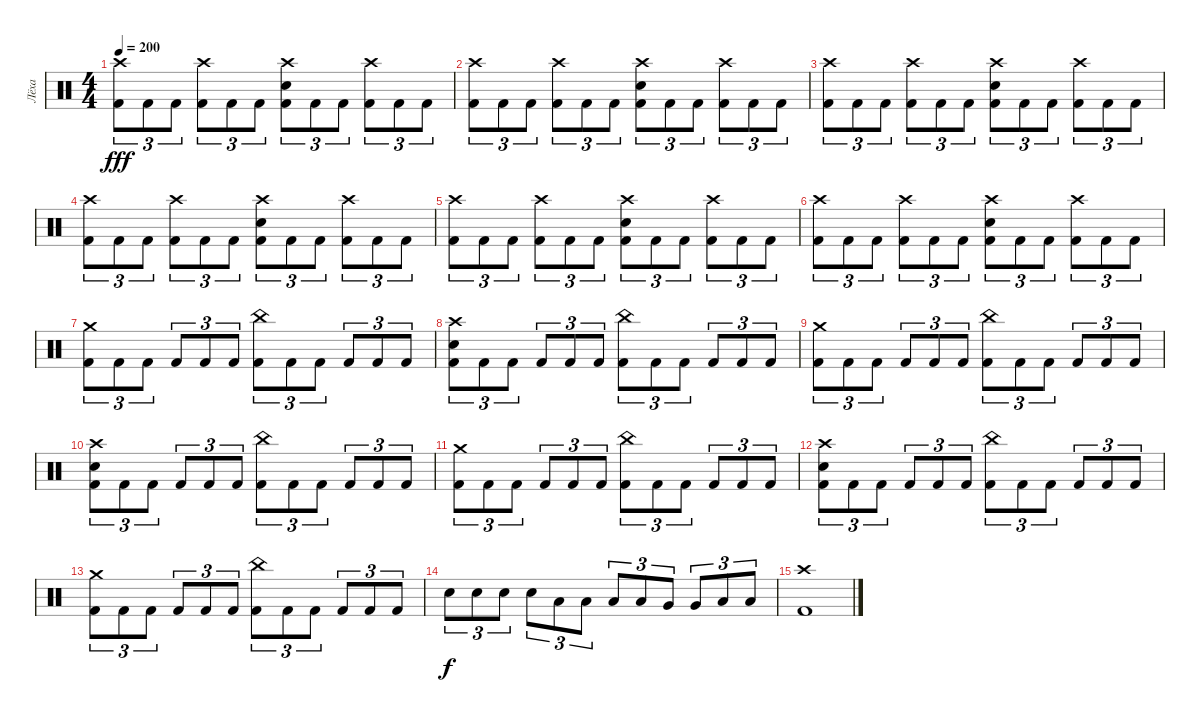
\track ("Лёха" "Лёха") {instrument percussion}
\staff {score}
\articulation defaults
\ts (4 4)
\tempo 200
\clef neutral
\ks c
("Crash high (hit)" "Kick (hit) 2").8{tu (3 2) dy fff} "Kick (hit) 2".8{tu (3 2)} "Kick (hit) 2".8{tu (3 2)} ("Crash high (hit)" "Kick (hit) 2").8{tu (3 2)} "Kick (hit) 2".8{tu (3 2)} "Kick (hit) 2".8{tu (3 2)} ("Crash high (hit)" "Electric Snare (hit)" "Kick (hit) 2").8{tu (3 2)} "Kick (hit) 2".8{tu (3 2)} "Kick (hit) 2".8{tu (3 2)} ("Crash high (hit)" "Kick (hit) 2").8{tu (3 2)} "Kick (hit) 2".8{tu (3 2)} "Kick (hit) 2".8{tu (3 2)} |
("Crash high (hit)" "Kick (hit) 2").8{tu (3 2)} "Kick (hit) 2".8{tu (3 2)} "Kick (hit) 2".8{tu (3 2)} ("Crash high (hit)" "Kick (hit) 2").8{tu (3 2)} "Kick (hit) 2".8{tu (3 2)} "Kick (hit) 2".8{tu (3 2)} ("Crash high (hit)" "Electric Snare (hit)" "Kick (hit) 2").8{tu (3 2)} "Kick (hit) 2".8{tu (3 2)} "Kick (hit) 2".8{tu (3 2)} ("Crash high (hit)" "Kick (hit) 2").8{tu (3 2)} "Kick (hit) 2".8{tu (3 2)} "Kick (hit) 2".8{tu (3 2)} |
("Crash high (hit)" "Kick (hit) 2").8{tu (3 2)} "Kick (hit) 2".8{tu (3 2)} "Kick (hit) 2".8{tu (3 2)} ("Crash high (hit)" "Kick (hit) 2").8{tu (3 2)} "Kick (hit) 2".8{tu (3 2)} "Kick (hit) 2".8{tu (3 2)} ("Crash high (hit)" "Electric Snare (hit)" "Kick (hit) 2").8{tu (3 2)} "Kick (hit) 2".8{tu (3 2)} "Kick (hit) 2".8{tu (3 2)} ("Crash high (hit)" "Kick (hit) 2").8{tu (3 2)} "Kick (hit) 2".8{tu (3 2)} "Kick (hit) 2".8{tu (3 2)} |
("Crash high (hit)" "Kick (hit) 2").8{tu (3 2)} "Kick (hit) 2".8{tu (3 2)} "Kick (hit) 2".8{tu (3 2)} ("Crash high (hit)" "Kick (hit) 2").8{tu (3 2)} "Kick (hit) 2".8{tu (3 2)} "Kick (hit) 2".8{tu (3 2)} ("Crash high (hit)" "Electric Snare (hit)" "Kick (hit) 2").8{tu (3 2)} "Kick (hit) 2".8{tu (3 2)} "Kick (hit) 2".8{tu (3 2)} ("Crash high (hit)" "Kick (hit) 2").8{tu (3 2)} "Kick (hit) 2".8{tu (3 2)} "Kick (hit) 2".8{tu (3 2)} |
("Crash high (hit)" "Kick (hit) 2").8{tu (3 2)} "Kick (hit) 2".8{tu (3 2)} "Kick (hit) 2".8{tu (3 2)} ("Crash high (hit)" "Kick (hit) 2").8{tu (3 2)} "Kick (hit) 2".8{tu (3 2)} "Kick (hit) 2".8{tu (3 2)} ("Crash high (hit)" "Electric Snare (hit)" "Kick (hit) 2").8{tu (3 2)} "Kick (hit) 2".8{tu (3 2)} "Kick (hit) 2".8{tu (3 2)} ("Crash high (hit)" "Kick (hit) 2").8{tu (3 2)} "Kick (hit) 2".8{tu (3 2)} "Kick (hit) 2".8{tu (3 2)} |
("Crash high (hit)" "Kick (hit) 2").8{tu (3 2)} "Kick (hit) 2".8{tu (3 2)} "Kick (hit) 2".8{tu (3 2)} ("Crash high (hit)" "Kick (hit) 2").8{tu (3 2)} "Kick (hit) 2".8{tu (3 2)} "Kick (hit) 2".8{tu (3 2)} ("Crash high (hit)" "Electric Snare (hit)" "Kick (hit) 2").8{tu (3 2)} "Kick (hit) 2".8{tu (3 2)} "Kick (hit) 2".8{tu (3 2)} ("Crash high (hit)" "Kick (hit) 2").8{tu (3 2)} "Kick (hit) 2".8{tu (3 2)} "Kick (hit) 2".8{tu (3 2)} |
("Crash medium (hit)" "Kick (hit) 2").8{tu (3 2)} "Kick (hit) 2".8{tu (3 2)} "Kick (hit) 2".8{tu (3 2)} "Kick (hit) 2".8{tu (3 2)} "Kick (hit) 2".8{tu (3 2)} "Kick (hit) 2".8{tu (3 2)} ("China (hit)" "Kick (hit) 2").8{tu (3 2)} "Kick (hit) 2".8{tu (3 2)} "Kick (hit) 2".8{tu (3 2)} "Kick (hit) 2".8{tu (3 2)} "Kick (hit) 2".8{tu (3 2)} "Kick (hit) 2".8{tu (3 2)} |
("Crash high (hit)" "Electric Snare (hit)" "Kick (hit) 2").8{tu (3 2)} "Kick (hit) 2".8{tu (3 2)} "Kick (hit) 2".8{tu (3 2)} "Kick (hit) 2".8{tu (3 2)} "Kick (hit) 2".8{tu (3 2)} "Kick (hit) 2".8{tu (3 2)} ("China (hit)" "Kick (hit) 2").8{tu (3 2)} "Kick (hit) 2".8{tu (3 2)} "Kick (hit) 2".8{tu (3 2)} "Kick (hit) 2".8{tu (3 2)} "Kick (hit) 2".8{tu (3 2)} "Kick (hit) 2".8{tu (3 2)} |
("Crash medium (hit)" "Kick (hit) 2").8{tu (3 2)} "Kick (hit) 2".8{tu (3 2)} "Kick (hit) 2".8{tu (3 2)} "Kick (hit) 2".8{tu (3 2)} "Kick (hit) 2".8{tu (3 2)} "Kick (hit) 2".8{tu (3 2)} ("China (hit)" "Kick (hit) 2").8{tu (3 2)} "Kick (hit) 2".8{tu (3 2)} "Kick (hit) 2".8{tu (3 2)} "Kick (hit) 2".8{tu (3 2)} "Kick (hit) 2".8{tu (3 2)} "Kick (hit) 2".8{tu (3 2)} |
("Crash high (hit)" "Electric Snare (hit)" "Kick (hit) 2").8{tu (3 2)} "Kick (hit) 2".8{tu (3 2)} "Kick (hit) 2".8{tu (3 2)} "Kick (hit) 2".8{tu (3 2)} "Kick (hit) 2".8{tu (3 2)} "Kick (hit) 2".8{tu (3 2)} ("China (hit)" "Kick (hit) 2").8{tu (3 2)} "Kick (hit) 2".8{tu (3 2)} "Kick (hit) 2".8{tu (3 2)} "Kick (hit) 2".8{tu (3 2)} "Kick (hit) 2".8{tu (3 2)} "Kick (hit) 2".8{tu (3 2)} |
("Crash medium (hit)" "Kick (hit) 2").8{tu (3 2)} "Kick (hit) 2".8{tu (3 2)} "Kick (hit) 2".8{tu (3 2)} "Kick (hit) 2".8{tu (3 2)} "Kick (hit) 2".8{tu (3 2)} "Kick (hit) 2".8{tu (3 2)} ("China (hit)" "Kick (hit) 2").8{tu (3 2)} "Kick (hit) 2".8{tu (3 2)} "Kick (hit) 2".8{tu (3 2)} "Kick (hit) 2".8{tu (3 2)} "Kick (hit) 2".8{tu (3 2)} "Kick (hit) 2".8{tu (3 2)} |
("Crash high (hit)" "Electric Snare (hit)" "Kick (hit) 2").8{tu (3 2)} "Kick (hit) 2".8{tu (3 2)} "Kick (hit) 2".8{tu (3 2)} "Kick (hit) 2".8{tu (3 2)} "Kick (hit) 2".8{tu (3 2)} "Kick (hit) 2".8{tu (3 2)} ("China (hit)" "Kick (hit) 2").8{tu (3 2)} "Kick (hit) 2".8{tu (3 2)} "Kick (hit) 2".8{tu (3 2)} "Kick (hit) 2".8{tu (3 2)} "Kick (hit) 2".8{tu (3 2)} "Kick (hit) 2".8{tu (3 2)} |
("Crash medium (hit)" "Kick (hit) 2").8{tu (3 2)} "Kick (hit) 2".8{tu (3 2)} "Kick (hit) 2".8{tu (3 2)} "Kick (hit) 2".8{tu (3 2)} "Kick (hit) 2".8{tu (3 2)} "Kick (hit) 2".8{tu (3 2)} ("China (hit)" "Kick (hit) 2").8{tu (3 2)} "Kick (hit) 2".8{tu (3 2)} "Kick (hit) 2".8{tu (3 2)} "Kick (hit) 2".8{tu (3 2)} "Kick (hit) 2".8{tu (3 2)} "Kick (hit) 2".8{tu (3 2)} |
"Electric Snare (hit)".8{tu (3 2) dy f} "Electric Snare (hit)".8{tu (3 2)} "Electric Snare (hit)".8{tu (3 2)} "Electric Snare (hit)".8{tu (3 2)} "Low Tom (hit)".8{tu (3 2)} "Low Tom (hit)".8{tu (3 2)} "Low Tom (hit)".8{tu (3 2)} "Low Tom (hit)".8{tu (3 2)} "Very Low Tom (hit)".8{tu (3 2)} "Very Low Tom (hit)".8{tu (3 2)} "Low Floor Tom (hit)".8{tu (3 2)} "Low Floor Tom (hit)".8{tu (3 2)} |
("Crash high (hit)" "Kick (hit) 2").1
